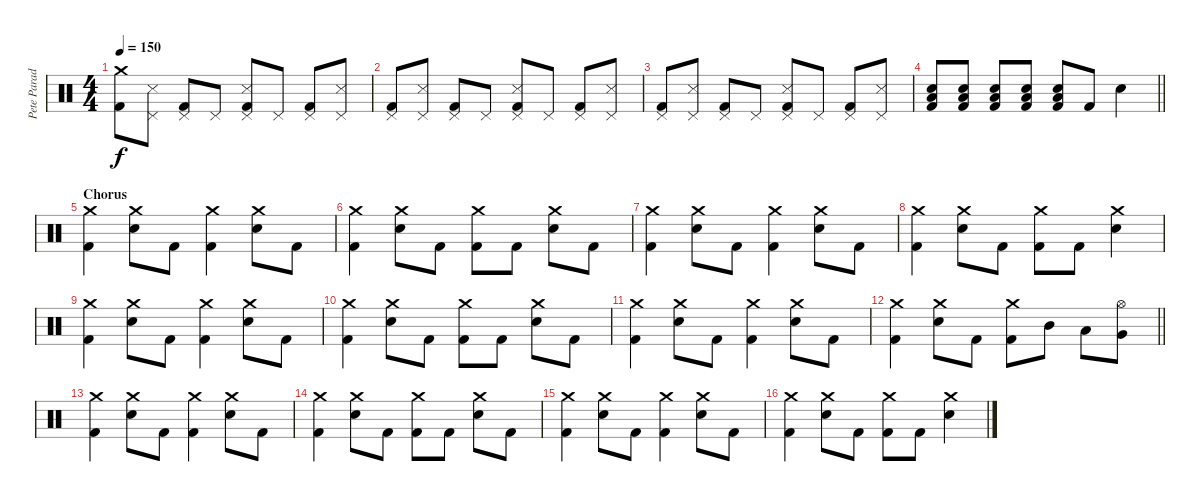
\track ("Pete Parada - Drums" "Pete Parad") {instrument percussion}
\staff {score}
\articulation defaults
\ts (4 4)
\tempo 150
\clef neutral
\ks c
("Crash medium (hit)" "Kick (hit) 2").8{dy f} ("Pedal Hi-Hat (hit)" "Snare (side stick) 3").8 ("Pedal Hi-Hat (hit)" "Kick (hit) 2").8 "Pedal Hi-Hat (hit)".8 ("Pedal Hi-Hat (hit)" "Snare (side stick) 3" "Kick (hit) 2").8 "Pedal Hi-Hat (hit)".8 ("Pedal Hi-Hat (hit)" "Kick (hit) 2").8 ("Pedal Hi-Hat (hit)" "Snare (side stick) 3").8 |
("Pedal Hi-Hat (hit)" "Kick (hit) 2").8 ("Pedal Hi-Hat (hit)" "Snare (side stick) 3").8 ("Pedal Hi-Hat (hit)" "Kick (hit) 2").8 "Pedal Hi-Hat (hit)".8 ("Pedal Hi-Hat (hit)" "Snare (side stick) 3" "Kick (hit) 2").8 "Pedal Hi-Hat (hit)".8 ("Pedal Hi-Hat (hit)" "Kick (hit) 2").8 ("Pedal Hi-Hat (hit)" "Snare (side stick) 3").8 |
("Pedal Hi-Hat (hit)" "Kick (hit) 2").8 ("Pedal Hi-Hat (hit)" "Snare (side stick) 3").8 ("Pedal Hi-Hat (hit)" "Kick (hit) 2").8 "Pedal Hi-Hat (hit)".8 ("Pedal Hi-Hat (hit)" "Snare (side stick) 3" "Kick (hit) 2").8 "Pedal Hi-Hat (hit)".8 ("Pedal Hi-Hat (hit)" "Kick (hit) 2").8 ("Pedal Hi-Hat (hit)" "Snare (side stick) 3").8 |
\barLineRight lightlight
("Electric Snare (hit)" "Low Floor Tom (hit)" "Kick (hit) 2").8 ("Electric Snare (hit)" "Low Floor Tom (hit)" "Kick (hit) 2").8 ("Electric Snare (hit)" "Low Floor Tom (hit)" "Kick (hit) 2").8 ("Electric Snare (hit)" "Low Floor Tom (hit)" "Kick (hit) 2").8 ("Electric Snare (hit)" "Low Floor Tom (hit)" "Kick (hit) 2").8 "Kick (hit) 2".8 "Electric Snare (hit)".4 |
\section ("" "Chorus")
("Crash medium (hit)" "Kick (hit) 2").4 ("Crash medium (hit)" "Electric Snare (hit)").8 "Kick (hit) 2".8 ("Crash medium (hit)" "Kick (hit) 2").4 ("Crash medium (hit)" "Electric Snare (hit)").8 "Kick (hit) 2".8 |
("Crash medium (hit)" "Kick (hit) 2").4 ("Crash medium (hit)" "Electric Snare (hit)").8 "Kick (hit) 2".8 ("Crash medium (hit)" "Kick (hit) 2").8 "Kick (hit) 2".8 ("Crash medium (hit)" "Electric Snare (hit)").8 "Kick (hit) 2".8 |
("Crash medium (hit)" "Kick (hit) 2").4 ("Crash medium (hit)" "Electric Snare (hit)").8 "Kick (hit) 2".8 ("Crash medium (hit)" "Kick (hit) 2").4 ("Crash medium (hit)" "Electric Snare (hit)").8 "Kick (hit) 2".8 |
("Crash medium (hit)" "Kick (hit) 2").4 ("Crash medium (hit)" "Electric Snare (hit)").8 "Kick (hit) 2".8 ("Crash medium (hit)" "Kick (hit) 2").8 "Kick (hit) 2".8 ("Crash medium (hit)" "Electric Snare (hit)").4 |
("Crash medium (hit)" "Kick (hit) 2").4 ("Crash medium (hit)" "Electric Snare (hit)").8 "Kick (hit) 2".8 ("Crash medium (hit)" "Kick (hit) 2").4 ("Crash medium (hit)" "Electric Snare (hit)").8 "Kick (hit) 2".8 |
("Crash medium (hit)" "Kick (hit) 2").4 ("Crash medium (hit)" "Electric Snare (hit)").8 "Kick (hit) 2".8 ("Crash medium (hit)" "Kick (hit) 2").8 "Kick (hit) 2".8 ("Crash medium (hit)" "Electric Snare (hit)").8 "Kick (hit) 2".8 |
("Crash medium (hit)" "Kick (hit) 2").4 ("Crash medium (hit)" "Electric Snare (hit)").8 "Kick (hit) 2".8 ("Crash medium (hit)" "Kick (hit) 2").4 ("Crash medium (hit)" "Electric Snare (hit)").8 "Kick (hit) 2".8 |
\barLineRight lightlight
("Crash medium (hit)" "Kick (hit) 2").4 ("Crash medium (hit)" "Electric Snare (hit)").8 "Kick (hit) 2".8 ("Crash medium (hit)" "Kick (hit) 2").8 "Mid Tom (hit)".8 "Low Tom (hit)".8 ("Hi-Hat (open)" "Very Low Tom (hit)").8 |
("Crash medium (hit)" "Kick (hit) 2").4 ("Crash medium (hit)" "Electric Snare (hit)").8 "Kick (hit) 2".8 ("Crash medium (hit)" "Kick (hit) 2").4 ("Crash medium (hit)" "Electric Snare (hit)").8 "Kick (hit) 2".8 |
("Crash medium (hit)" "Kick (hit) 2").4 ("Crash medium (hit)" "Electric Snare (hit)").8 "Kick (hit) 2".8 ("Crash medium (hit)" "Kick (hit) 2").8 "Kick (hit) 2".8 ("Crash medium (hit)" "Electric Snare (hit)").8 "Kick (hit) 2".8 |
("Crash medium (hit)" "Kick (hit) 2").4 ("Crash medium (hit)" "Electric Snare (hit)").8 "Kick (hit) 2".8 ("Crash medium (hit)" "Kick (hit) 2").4 ("Crash medium (hit)" "Electric Snare (hit)").8 "Kick (hit) 2".8 |
("Crash medium (hit)" "Kick (hit) 2").4 ("Crash medium (hit)" "Electric Snare (hit)").8 "Kick (hit) 2".8 ("Crash medium (hit)" "Kick (hit) 2").8 "Kick (hit) 2".8 ("Crash medium (hit)" "Electric Snare (hit)").4
